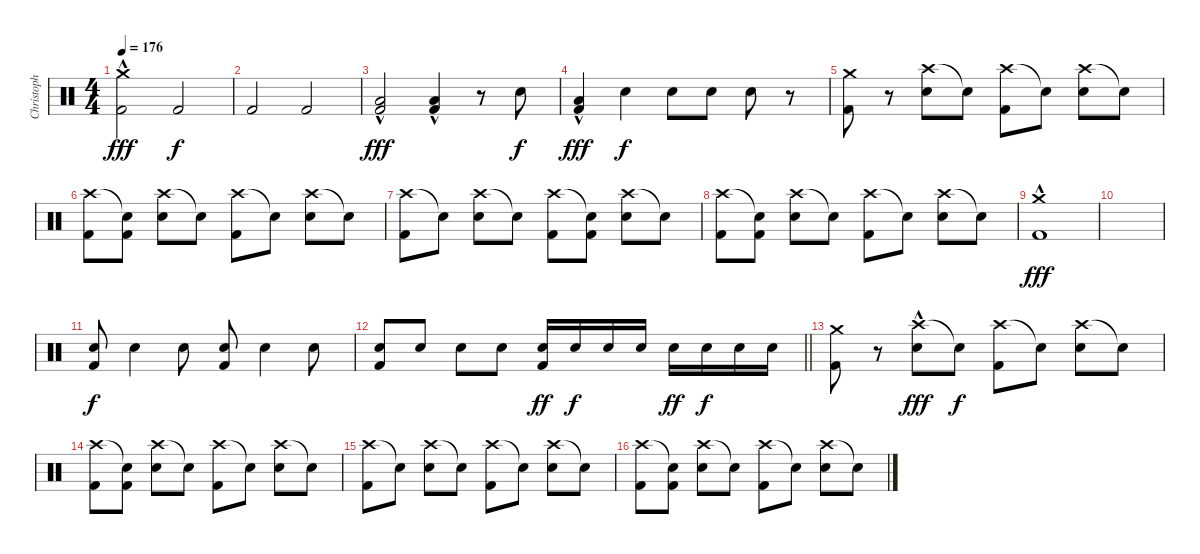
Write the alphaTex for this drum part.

\track ("Christoph" "Christoph") {instrument percussion}
\staff {score}
\articulation defaults
\ts (4 4)
\tempo 176
\clef neutral
\ks c
("Crash medium (hit)"{hac} "Kick (hit) 2").2{dy fff} "Kick (hit) 2".2{dy f} |
"Kick (hit) 2".2 "Kick (hit) 2".2 |
("Low Floor Tom (hit)" "Kick (hit) 2"{hac}).2{dy fff} ("Low Floor Tom (hit)" "Kick (hit) 2"{hac}).4 r.8 "Snare (hit) 2".8{dy f} |
("Low Floor Tom (hit)" "Kick (hit) 2"{hac}).4{dy fff} "Snare (hit) 2".4{dy f} "Snare (hit) 2".8 "Snare (hit) 2".8 "Snare (hit) 2".8 r.8 |
("Crash medium (hit)" "Kick (hit) 2").8 r.8 ("Crash high (hit)" "Snare (hit) 2").8 "Snare (hit)"{t}.8 ("Crash high (hit)" "Kick (hit) 2").8 "Snare (hit)"{t}.8 ("Crash high (hit)" "Snare (hit) 2").8 "Snare (hit)"{t}.8 |
("Crash high (hit)" "Kick (hit) 2").8 ("Snare (hit)"{t} "Kick (hit) 2").8 ("Crash high (hit)" "Snare (hit) 2").8 "Snare (hit)"{t}.8 ("Crash high (hit)" "Kick (hit) 2").8 "Snare (hit)"{t}.8 ("Crash high (hit)" "Snare (hit) 2").8 "Snare (hit)"{t}.8 |
("Crash high (hit)" "Kick (hit) 2").8 "Snare (hit)"{t}.8 ("Crash high (hit)" "Snare (hit) 2").8 "Snare (hit)"{t}.8 ("Crash high (hit)" "Kick (hit) 2").8 ("Snare (hit)"{t} "Kick (hit) 2").8 ("Crash high (hit)" "Snare (hit) 2").8 "Snare (hit)"{t}.8 |
("Crash high (hit)" "Kick (hit) 2").8 ("Snare (hit)"{t} "Kick (hit) 2").8 ("Crash high (hit)" "Snare (hit) 2").8 "Snare (hit)"{t}.8 ("Crash high (hit)" "Kick (hit) 2").8 "Snare (hit)"{t}.8 ("Crash high (hit)" "Snare (hit) 2").8 "Snare (hit)"{t}.8 |
("Crash medium (hit)"{hac} "Kick (hit) 2").1{dy fff} |
|
("Snare (hit) 2" "Kick (hit) 2").8{dy f} "Snare (hit) 2".4 "Snare (hit) 2".8 ("Snare (hit) 2" "Kick (hit) 2").8 "Snare (hit) 2".4 "Snare (hit) 2".8 |
\barLineRight lightlight
("Snare (hit) 2" "Kick (hit) 2").8 "Snare (hit) 2".8 "Snare (hit) 2".8 "Snare (hit) 2".8 ("Snare (hit) 2" "Kick (hit) 2").16{dy ff} "Snare (hit) 2".16{dy f} "Snare (hit) 2".16 "Snare (hit) 2".16 "Snare (hit) 2".16{dy ff} "Snare (hit) 2".16{dy f} "Snare (hit) 2".16 "Snare (hit) 2".16 |
("Crash medium (hit)" "Kick (hit) 2").8 r.8 ("Crash high (hit)"{hac} "Snare (hit) 2").8{dy fff} "Snare (hit)"{t}.8{dy f} ("Crash high (hit)" "Kick (hit) 2").8 "Snare (hit)"{t}.8 ("Crash high (hit)" "Snare (hit) 2").8 "Snare (hit)"{t}.8 |
("Crash high (hit)" "Kick (hit) 2").8 ("Snare (hit)"{t} "Kick (hit) 2").8 ("Crash high (hit)" "Snare (hit) 2").8 "Snare (hit)"{t}.8 ("Crash high (hit)" "Kick (hit) 2").8 "Snare (hit)"{t}.8 ("Crash high (hit)" "Snare (hit) 2").8 "Snare (hit)"{t}.8 |
("Crash high (hit)" "Kick (hit) 2").8 "Snare (hit)"{t}.8 ("Crash high (hit)" "Snare (hit) 2").8 "Snare (hit)"{t}.8 ("Crash high (hit)" "Kick (hit) 2").8 "Snare (hit)"{t}.8 ("Crash high (hit)" "Snare (hit) 2").8 "Snare (hit)"{t}.8 |
("Crash high (hit)" "Kick (hit) 2").8 ("Snare (hit)"{t} "Kick (hit) 2").8 ("Crash high (hit)" "Snare (hit) 2").8 "Snare (hit)"{t}.8 ("Crash high (hit)" "Kick (hit) 2").8 "Snare (hit)"{t}.8 ("Crash high (hit)" "Snare (hit) 2").8 "Snare (hit)"{t}.8
